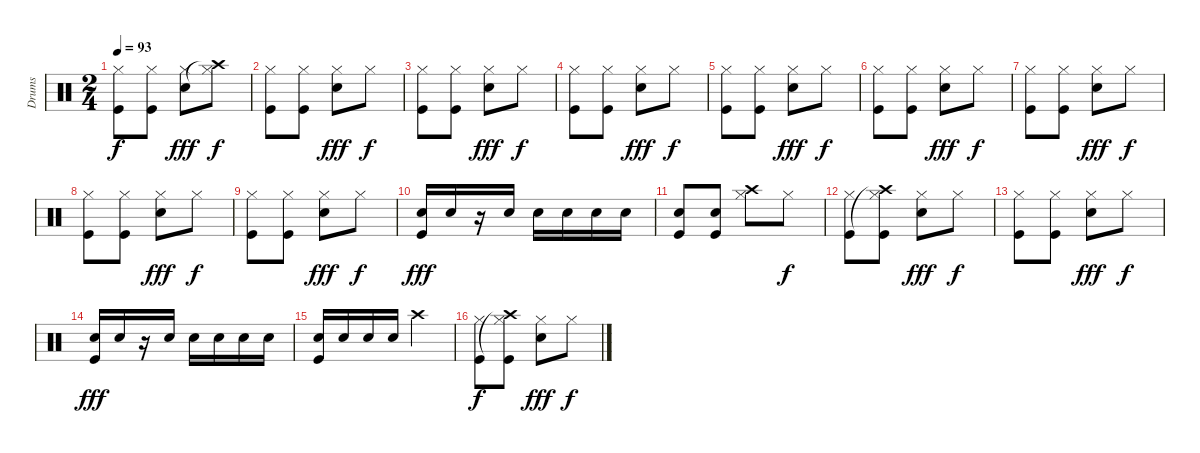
\track ("Drums" "Drums") {instrument percussion}
\staff {score}
\articulation defaults
\ts (2 4)
\tempo 93
\clef neutral
\ks c
("Hi-Hat (closed)" "Kick (hit)").8{dy f} ("Hi-Hat (closed)" "Kick (hit)").8 ("Hi-Hat (closed)" "Snare (hit) 2").8{dy fff} ("Hi-Hat (closed)" "Crash high (hit)"{t}).8{dy f} |
("Hi-Hat (closed)" "Kick (hit)").8 ("Hi-Hat (closed)" "Kick (hit)").8 ("Hi-Hat (closed)" "Snare (hit) 2").8{dy fff} "Hi-Hat (closed)".8{dy f} |
("Hi-Hat (closed)" "Kick (hit)").8 ("Hi-Hat (closed)" "Kick (hit)").8 ("Hi-Hat (closed)" "Snare (hit) 2").8{dy fff} "Hi-Hat (closed)".8{dy f} |
("Hi-Hat (closed)" "Kick (hit)").8 ("Hi-Hat (closed)" "Kick (hit)").8 ("Hi-Hat (closed)" "Snare (hit) 2").8{dy fff} "Hi-Hat (closed)".8{dy f} |
("Hi-Hat (closed)" "Kick (hit)").8 ("Hi-Hat (closed)" "Kick (hit)").8 ("Hi-Hat (closed)" "Snare (hit) 2").8{dy fff} "Hi-Hat (closed)".8{dy f} |
("Hi-Hat (closed)" "Kick (hit)").8 ("Hi-Hat (closed)" "Kick (hit)").8 ("Hi-Hat (closed)" "Snare (hit) 2").8{dy fff} "Hi-Hat (closed)".8{dy f} |
("Hi-Hat (closed)" "Kick (hit)").8 ("Hi-Hat (closed)" "Kick (hit)").8 ("Hi-Hat (closed)" "Snare (hit) 2").8{dy fff} "Hi-Hat (closed)".8{dy f} |
("Hi-Hat (closed)" "Kick (hit)").8 ("Hi-Hat (closed)" "Kick (hit)").8 ("Hi-Hat (closed)" "Snare (hit) 2").8{dy fff} "Hi-Hat (closed)".8{dy f} |
("Hi-Hat (closed)" "Kick (hit)").8 ("Hi-Hat (closed)" "Kick (hit)").8 ("Hi-Hat (closed)" "Snare (hit) 2").8{dy fff} "Hi-Hat (closed)".8{dy f} |
("Snare (hit) 2" "Kick (hit)").16{dy fff} "Snare (hit) 2".16 r.16 "Snare (hit) 2".16 "Snare (hit) 2".16 "Snare (hit) 2".16 "Snare (hit) 2".16 "Snare (hit) 2".16 |
("Snare (hit) 2" "Kick (hit)").8 ("Snare (hit) 2" "Kick (hit)").8 ("Hi-Hat (closed)" "Crash high (hit)").8 "Hi-Hat (closed)".8{dy f} |
("Hi-Hat (closed)" "Kick (hit)").8 ("Hi-Hat (closed)" "Crash high (hit)"{t} "Kick (hit)").8 ("Hi-Hat (closed)" "Snare (hit) 2").8{dy fff} "Hi-Hat (closed)".8{dy f} |
("Hi-Hat (closed)" "Kick (hit)").8 ("Hi-Hat (closed)" "Kick (hit)").8 ("Hi-Hat (closed)" "Snare (hit) 2").8{dy fff} "Hi-Hat (closed)".8{dy f} |
("Snare (hit) 2" "Kick (hit)").16{dy fff} "Snare (hit) 2".16 r.16 "Snare (hit) 2".16 "Snare (hit) 2".16 "Snare (hit) 2".16 "Snare (hit) 2".16 "Snare (hit) 2".16 |
("Snare (hit) 2" "Kick (hit)").16 "Snare (hit) 2".16 "Snare (hit) 2".16 "Snare (hit) 2".16 "Crash high (hit)".4 |
("Hi-Hat (closed)" "Kick (hit)").8{dy f} ("Hi-Hat (closed)" "Crash high (hit)"{t} "Kick (hit)").8 ("Hi-Hat (closed)" "Snare (hit) 2").8{dy fff} "Hi-Hat (closed)".8{dy f}
